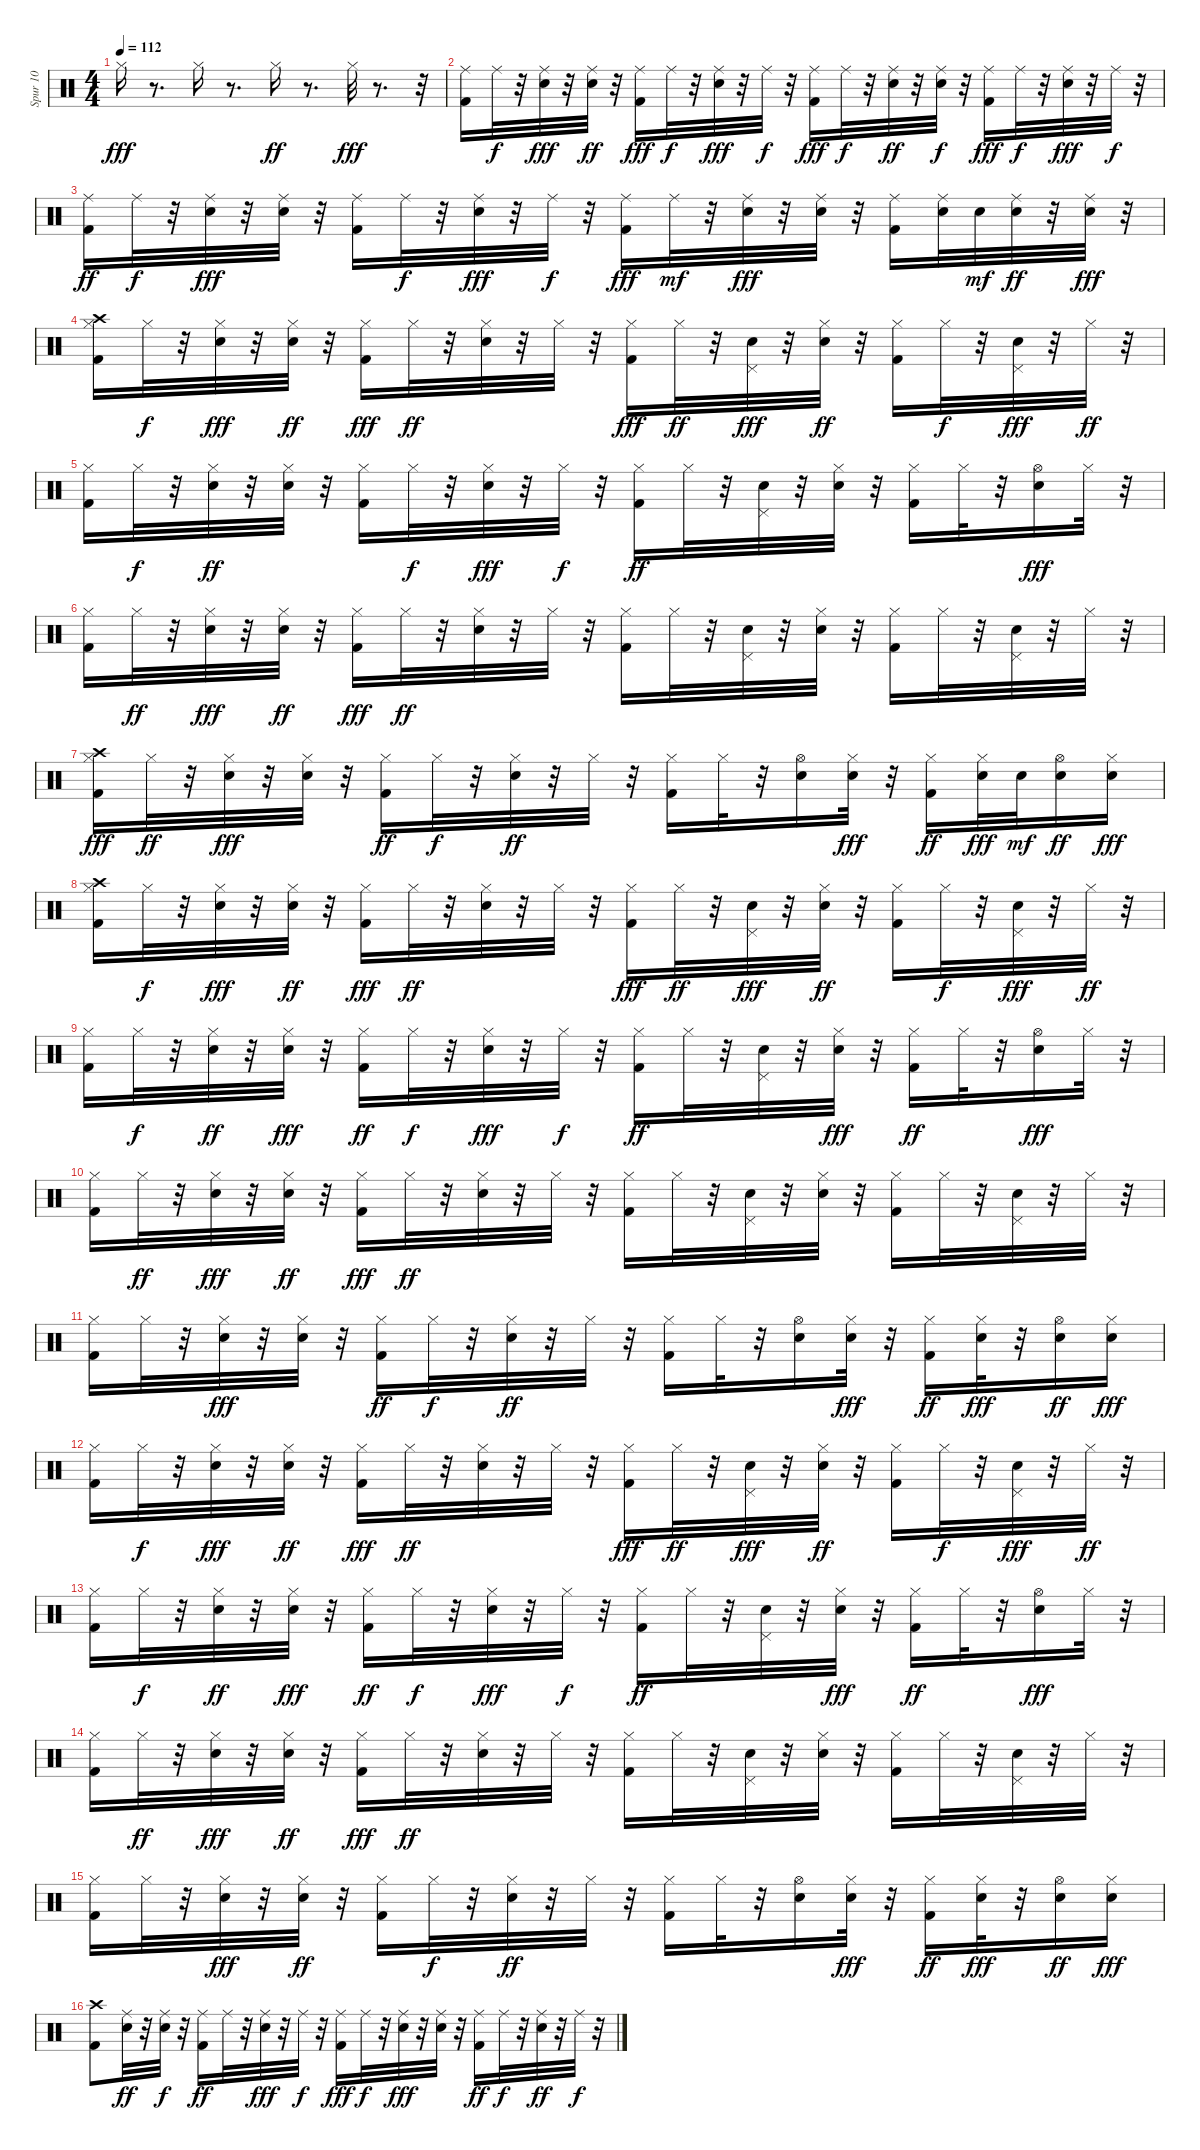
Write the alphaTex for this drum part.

\track ("Spur 10" "Spur 10") {instrument percussion}
\staff {score}
\articulation defaults
\ts (4 4)
\tempo 112
\clef neutral
\ks c "Hi-Hat (closed)".16{dy fff}
r.8{d} "Hi-Hat (closed)".16 r.8{d} "Hi-Hat (closed)".16{dy ff} r.8{d} "Hi-Hat (closed)".32{dy fff} r.8{d} r.32 |
("Kick (hit) 2" "Ride (middle)").16 "Ride (middle)".32{dy f} r.32 ("Electric Snare (hit)" "Ride (middle)").32{dy fff} r.32 ("Electric Snare (hit)" "Ride (middle)").32{dy ff} r.32 ("Kick (hit) 2" "Ride (middle)").16{dy fff} "Ride (middle)".32{dy f} r.32 ("Electric Snare (hit)" "Ride (middle)").32{dy fff} r.32 "Ride (middle)".32{dy f} r.32 ("Kick (hit) 2" "Ride (middle)").16{dy fff} "Ride (middle)".32{dy f} r.32 ("Electric Snare (hit)" "Ride (middle)").32{dy ff} r.32 ("Electric Snare (hit)" "Ride (middle)").32{dy f} r.32 ("Kick (hit) 2" "Ride (middle)").16{dy fff} "Ride (middle)".32{dy f} r.32 ("Electric Snare (hit)" "Ride (middle)").32{dy fff} r.32 "Ride (middle)".32{dy f} r.32 |
("Kick (hit) 2" "Ride (middle)").16{dy ff} "Ride (middle)".32{dy f} r.32 ("Electric Snare (hit)" "Ride (middle)").32{dy fff} r.32 ("Electric Snare (hit)" "Ride (middle)").32 r.32 ("Kick (hit) 2" "Ride (middle)").16 "Ride (middle)".32{dy f} r.32 ("Electric Snare (hit)" "Ride (middle)").32{dy fff} r.32 "Ride (middle)".32{dy f} r.32 ("Kick (hit) 2" "Ride (middle)").16{dy fff} "Ride (middle)".32{dy mf} r.32 ("Electric Snare (hit)" "Ride (middle)").32{dy fff} r.32 ("Electric Snare (hit)" "Ride (middle)").32 r.32 ("Kick (hit) 2" "Ride (middle)").16 ("Electric Snare (hit)" "Ride (middle)").32 "Electric Snare (hit)".32{dy mf} ("Electric Snare (hit)" "Ride (middle)").32{dy ff} r.32 ("Electric Snare (hit)" "Ride (middle)").32{dy fff} r.32 |
("Kick (hit) 2" "Hi-Hat (closed)" "Crash high (hit)").16 "Hi-Hat (closed)".32{dy f} r.32 ("Electric Snare (hit)" "Hi-Hat (closed)").32{dy fff} r.32 ("Electric Snare (hit)" "Hi-Hat (closed)").32{dy ff} r.32 ("Kick (hit) 2" "Hi-Hat (closed)").16{dy fff} "Hi-Hat (closed)".32{dy ff} r.32 ("Electric Snare (hit)" "Hi-Hat (closed)").32 r.32 "Hi-Hat (closed)".32 r.32 ("Kick (hit) 2" "Hi-Hat (closed)").16{dy fff} "Hi-Hat (closed)".32{dy ff} r.32 ("Electric Snare (hit)" "Pedal Hi-Hat (hit)").32{dy fff} r.32 ("Electric Snare (hit)" "Hi-Hat (closed)").32{dy ff} r.32 ("Kick (hit) 2" "Hi-Hat (closed)").16 "Hi-Hat (closed)".32{dy f} r.32 ("Electric Snare (hit)" "Pedal Hi-Hat (hit)").32{dy fff} r.32 "Hi-Hat (closed)".32{dy ff} r.32 |
("Kick (hit) 2" "Hi-Hat (closed)").16 "Hi-Hat (closed)".32{dy f} r.32 ("Electric Snare (hit)" "Hi-Hat (closed)").32{dy ff} r.32 ("Electric Snare (hit)" "Hi-Hat (closed)").32 r.32 ("Kick (hit) 2" "Hi-Hat (closed)").16 "Hi-Hat (closed)".32{dy f} r.32 ("Electric Snare (hit)" "Hi-Hat (closed)").32{dy fff} r.32 "Hi-Hat (closed)".32{dy f} r.32 ("Kick (hit) 2" "Hi-Hat (closed)").16{dy ff} "Hi-Hat (closed)".32 r.32 ("Electric Snare (hit)" "Pedal Hi-Hat (hit)").32 r.32 ("Electric Snare (hit)" "Hi-Hat (closed)").32 r.32 ("Kick (hit) 2" "Hi-Hat (closed)").16 "Hi-Hat (closed)".32 r.32 ("Electric Snare (hit)" "Hi-Hat (open)").16{dy fff} "Hi-Hat (closed)".32 r.32 |
("Kick (hit) 2" "Hi-Hat (closed)").16 "Hi-Hat (closed)".32{dy ff} r.32 ("Electric Snare (hit)" "Hi-Hat (closed)").32{dy fff} r.32 ("Electric Snare (hit)" "Hi-Hat (closed)").32{dy ff} r.32 ("Kick (hit) 2" "Hi-Hat (closed)").16{dy fff} "Hi-Hat (closed)".32{dy ff} r.32 ("Electric Snare (hit)" "Hi-Hat (closed)").32 r.32 "Hi-Hat (closed)".32 r.32 ("Kick (hit) 2" "Hi-Hat (closed)").16 "Hi-Hat (closed)".32 r.32 ("Electric Snare (hit)" "Pedal Hi-Hat (hit)").32 r.32 ("Electric Snare (hit)" "Hi-Hat (closed)").32 r.32 ("Kick (hit) 2" "Hi-Hat (closed)").16 "Hi-Hat (closed)".32 r.32 ("Electric Snare (hit)" "Pedal Hi-Hat (hit)").32 r.32 "Hi-Hat (closed)".32 r.32 |
("Kick (hit) 2" "Hi-Hat (closed)" "Crash high (hit)").16{dy fff} "Hi-Hat (closed)".32{dy ff} r.32 ("Electric Snare (hit)" "Hi-Hat (closed)").32{dy fff} r.32 ("Electric Snare (hit)" "Hi-Hat (closed)").32 r.32 ("Kick (hit) 2" "Hi-Hat (closed)").16{dy ff} "Hi-Hat (closed)".32{dy f} r.32 ("Electric Snare (hit)" "Hi-Hat (closed)").32{dy ff} r.32 "Hi-Hat (closed)".32 r.32 ("Kick (hit) 2" "Hi-Hat (closed)").16 "Hi-Hat (closed)".32 r.32 ("Electric Snare (hit)" "Hi-Hat (open)").16 ("Electric Snare (hit)" "Hi-Hat (closed)").32{dy fff} r.32 ("Kick (hit) 2" "Hi-Hat (closed)").16{dy ff} ("Electric Snare (hit)" "Hi-Hat (closed)").32{dy fff} "Electric Snare (hit)".32{dy mf} ("Electric Snare (hit)" "Hi-Hat (open)").16{dy ff} ("Electric Snare (hit)" "Hi-Hat (closed)").16{dy fff} |
("Kick (hit) 2" "Hi-Hat (closed)" "Crash high (hit)").16 "Hi-Hat (closed)".32{dy f} r.32 ("Electric Snare (hit)" "Hi-Hat (closed)").32{dy fff} r.32 ("Electric Snare (hit)" "Hi-Hat (closed)").32{dy ff} r.32 ("Kick (hit) 2" "Hi-Hat (closed)").16{dy fff} "Hi-Hat (closed)".32{dy ff} r.32 ("Electric Snare (hit)" "Hi-Hat (closed)").32 r.32 "Hi-Hat (closed)".32 r.32 ("Kick (hit) 2" "Hi-Hat (closed)").16{dy fff} "Hi-Hat (closed)".32{dy ff} r.32 ("Electric Snare (hit)" "Pedal Hi-Hat (hit)").32{dy fff} r.32 ("Electric Snare (hit)" "Hi-Hat (closed)").32{dy ff} r.32 ("Kick (hit) 2" "Hi-Hat (closed)").16 "Hi-Hat (closed)".32{dy f} r.32 ("Electric Snare (hit)" "Pedal Hi-Hat (hit)").32{dy fff} r.32 "Hi-Hat (closed)".32{dy ff} r.32 |
("Kick (hit) 2" "Hi-Hat (closed)").16 "Hi-Hat (closed)".32{dy f} r.32 ("Electric Snare (hit)" "Hi-Hat (closed)").32{dy ff} r.32 ("Electric Snare (hit)" "Hi-Hat (closed)").32{dy fff} r.32 ("Kick (hit) 2" "Hi-Hat (closed)").16{dy ff} "Hi-Hat (closed)".32{dy f} r.32 ("Electric Snare (hit)" "Hi-Hat (closed)").32{dy fff} r.32 "Hi-Hat (closed)".32{dy f} r.32 ("Kick (hit) 2" "Hi-Hat (closed)").16{dy ff} "Hi-Hat (closed)".32 r.32 ("Electric Snare (hit)" "Pedal Hi-Hat (hit)").32 r.32 ("Electric Snare (hit)" "Hi-Hat (closed)").32{dy fff} r.32 ("Kick (hit) 2" "Hi-Hat (closed)").16{dy ff} "Hi-Hat (closed)".32 r.32 ("Electric Snare (hit)" "Hi-Hat (open)").16{dy fff} "Hi-Hat (closed)".32 r.32 |
("Kick (hit) 2" "Hi-Hat (closed)").16 "Hi-Hat (closed)".32{dy ff} r.32 ("Electric Snare (hit)" "Hi-Hat (closed)").32{dy fff} r.32 ("Electric Snare (hit)" "Hi-Hat (closed)").32{dy ff} r.32 ("Kick (hit) 2" "Hi-Hat (closed)").16{dy fff} "Hi-Hat (closed)".32{dy ff} r.32 ("Electric Snare (hit)" "Hi-Hat (closed)").32 r.32 "Hi-Hat (closed)".32 r.32 ("Kick (hit) 2" "Hi-Hat (closed)").16 "Hi-Hat (closed)".32 r.32 ("Electric Snare (hit)" "Pedal Hi-Hat (hit)").32 r.32 ("Electric Snare (hit)" "Hi-Hat (closed)").32 r.32 ("Kick (hit) 2" "Hi-Hat (closed)").16 "Hi-Hat (closed)".32 r.32 ("Electric Snare (hit)" "Pedal Hi-Hat (hit)").32 r.32 "Hi-Hat (closed)".32 r.32 |
("Kick (hit) 2" "Hi-Hat (closed)").16 "Hi-Hat (closed)".32 r.32 ("Electric Snare (hit)" "Hi-Hat (closed)").32{dy fff} r.32 ("Electric Snare (hit)" "Hi-Hat (closed)").32 r.32 ("Kick (hit) 2" "Hi-Hat (closed)").16{dy ff} "Hi-Hat (closed)".32{dy f} r.32 ("Electric Snare (hit)" "Hi-Hat (closed)").32{dy ff} r.32 "Hi-Hat (closed)".32 r.32 ("Kick (hit) 2" "Hi-Hat (closed)").16 "Hi-Hat (closed)".32 r.32 ("Electric Snare (hit)" "Hi-Hat (open)").16 ("Electric Snare (hit)" "Hi-Hat (closed)").32{dy fff} r.32 ("Kick (hit) 2" "Hi-Hat (closed)").16{dy ff} ("Electric Snare (hit)" "Hi-Hat (closed)").32{dy fff} r.32 ("Electric Snare (hit)" "Hi-Hat (open)").16{dy ff} ("Electric Snare (hit)" "Hi-Hat (closed)").16{dy fff} |
("Kick (hit) 2" "Hi-Hat (closed)").16 "Hi-Hat (closed)".32{dy f} r.32 ("Electric Snare (hit)" "Hi-Hat (closed)").32{dy fff} r.32 ("Electric Snare (hit)" "Hi-Hat (closed)").32{dy ff} r.32 ("Kick (hit) 2" "Hi-Hat (closed)").16{dy fff} "Hi-Hat (closed)".32{dy ff} r.32 ("Electric Snare (hit)" "Hi-Hat (closed)").32 r.32 "Hi-Hat (closed)".32 r.32 ("Kick (hit) 2" "Hi-Hat (closed)").16{dy fff} "Hi-Hat (closed)".32{dy ff} r.32 ("Electric Snare (hit)" "Pedal Hi-Hat (hit)").32{dy fff} r.32 ("Electric Snare (hit)" "Hi-Hat (closed)").32{dy ff} r.32 ("Kick (hit) 2" "Hi-Hat (closed)").16 "Hi-Hat (closed)".32{dy f} r.32 ("Electric Snare (hit)" "Pedal Hi-Hat (hit)").32{dy fff} r.32 "Hi-Hat (closed)".32{dy ff} r.32 |
("Kick (hit) 2" "Hi-Hat (closed)").16 "Hi-Hat (closed)".32{dy f} r.32 ("Electric Snare (hit)" "Hi-Hat (closed)").32{dy ff} r.32 ("Electric Snare (hit)" "Hi-Hat (closed)").32{dy fff} r.32 ("Kick (hit) 2" "Hi-Hat (closed)").16{dy ff} "Hi-Hat (closed)".32{dy f} r.32 ("Electric Snare (hit)" "Hi-Hat (closed)").32{dy fff} r.32 "Hi-Hat (closed)".32{dy f} r.32 ("Kick (hit) 2" "Hi-Hat (closed)").16{dy ff} "Hi-Hat (closed)".32 r.32 ("Electric Snare (hit)" "Pedal Hi-Hat (hit)").32 r.32 ("Electric Snare (hit)" "Hi-Hat (closed)").32{dy fff} r.32 ("Kick (hit) 2" "Hi-Hat (closed)").16{dy ff} "Hi-Hat (closed)".32 r.32 ("Electric Snare (hit)" "Hi-Hat (open)").16{dy fff} "Hi-Hat (closed)".32 r.32 |
("Kick (hit) 2" "Hi-Hat (closed)").16 "Hi-Hat (closed)".32{dy ff} r.32 ("Electric Snare (hit)" "Hi-Hat (closed)").32{dy fff} r.32 ("Electric Snare (hit)" "Hi-Hat (closed)").32{dy ff} r.32 ("Kick (hit) 2" "Hi-Hat (closed)").16{dy fff} "Hi-Hat (closed)".32{dy ff} r.32 ("Electric Snare (hit)" "Hi-Hat (closed)").32 r.32 "Hi-Hat (closed)".32 r.32 ("Kick (hit) 2" "Hi-Hat (closed)").16 "Hi-Hat (closed)".32 r.32 ("Electric Snare (hit)" "Pedal Hi-Hat (hit)").32 r.32 ("Electric Snare (hit)" "Hi-Hat (closed)").32 r.32 ("Kick (hit) 2" "Hi-Hat (closed)").16 "Hi-Hat (closed)".32 r.32 ("Electric Snare (hit)" "Pedal Hi-Hat (hit)").32 r.32 "Hi-Hat (closed)".32 r.32 |
("Kick (hit) 2" "Hi-Hat (closed)").16 "Hi-Hat (closed)".32 r.32 ("Electric Snare (hit)" "Hi-Hat (closed)").32{dy fff} r.32 ("Electric Snare (hit)" "Hi-Hat (closed)").32{dy ff} r.32 ("Kick (hit) 2" "Hi-Hat (closed)").16 "Hi-Hat (closed)".32{dy f} r.32 ("Electric Snare (hit)" "Hi-Hat (closed)").32{dy ff} r.32 "Hi-Hat (closed)".32 r.32 ("Kick (hit) 2" "Hi-Hat (closed)").16 "Hi-Hat (closed)".32 r.32 ("Electric Snare (hit)" "Hi-Hat (open)").16 ("Electric Snare (hit)" "Hi-Hat (closed)").32{dy fff} r.32 ("Kick (hit) 2" "Hi-Hat (closed)").16{dy ff} ("Electric Snare (hit)" "Hi-Hat (closed)").32{dy fff} r.32 ("Electric Snare (hit)" "Hi-Hat (open)").16{dy ff} ("Electric Snare (hit)" "Hi-Hat (closed)").16{dy fff} |
("Kick (hit) 2" "Crash high (hit)").8 ("Electric Snare (hit)" "Ride (middle)").32{dy ff} r.32 ("Electric Snare (hit)" "Ride (middle)").32{dy f} r.32 ("Kick (hit) 2" "Ride (middle)").16{dy ff} "Ride (middle)".32 r.32 ("Electric Snare (hit)" "Ride (middle)").32{dy fff} r.32 "Ride (middle)".32{dy f} r.32 ("Kick (hit) 2" "Ride (middle)").16{dy fff} "Ride (middle)".32{dy f} r.32 ("Electric Snare (hit)" "Ride (middle)").32{dy fff} r.32 ("Electric Snare (hit)" "Ride (middle)").32 r.32 ("Kick (hit) 2" "Ride (middle)").16{dy ff} "Ride (middle)".32{dy f} r.32 ("Electric Snare (hit)" "Ride (middle)").32{dy ff} r.32 "Ride (middle)".32{dy f} r.32
